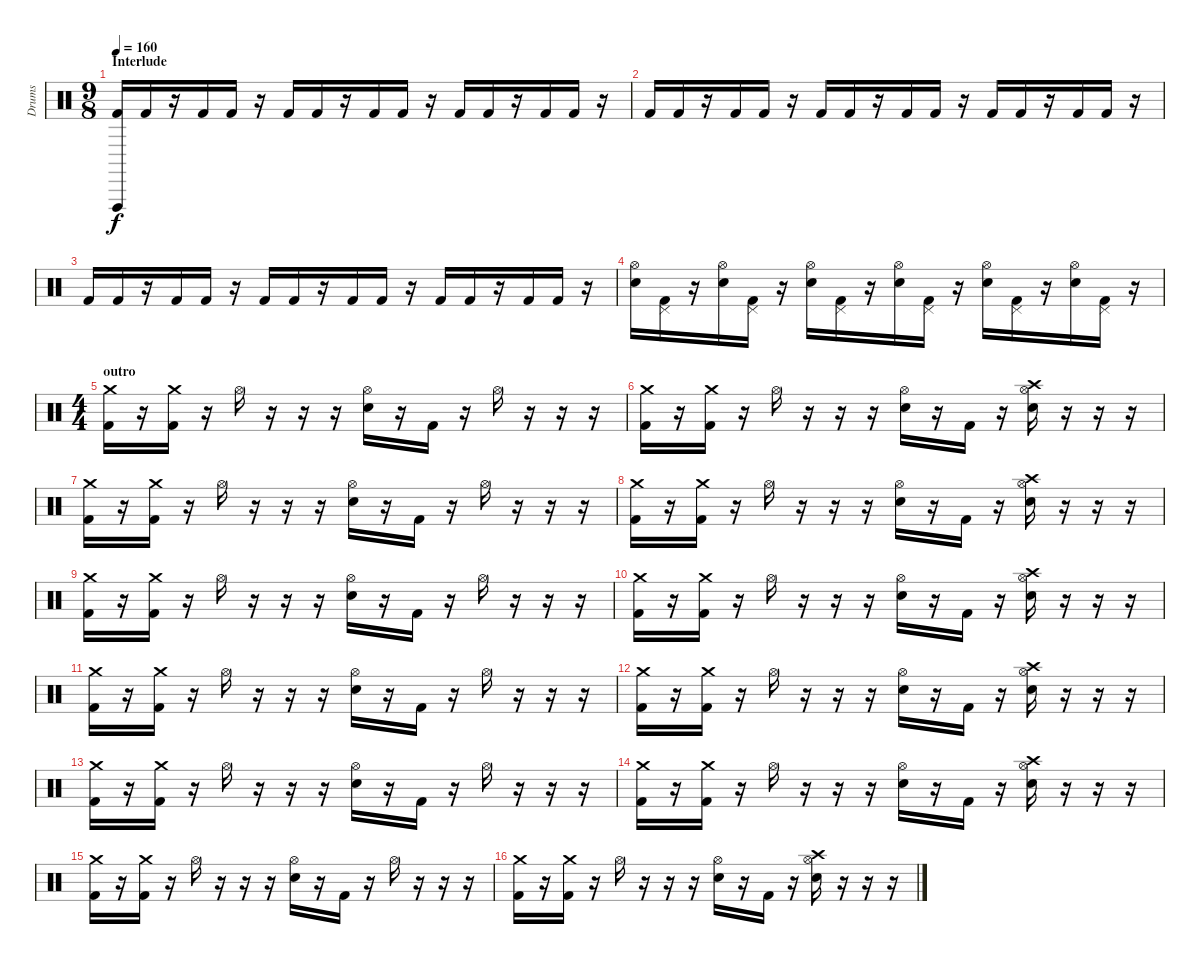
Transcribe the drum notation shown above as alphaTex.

\track ("Drums" "Drums") {instrument percussion}
\staff {score}
\articulation defaults
\ts (9 8)
\section ("" "Interlude")
\tempo 160
\clef neutral
\ks c
("Vibraslap (hit)" "Kick (hit) 2").16{dy f} "Kick (hit) 2".16 r.16 "Kick (hit) 2".16 "Kick (hit) 2".16 r.16 "Kick (hit) 2".16 "Kick (hit) 2".16 r.16 "Kick (hit) 2".16 "Kick (hit) 2".16 r.16 "Kick (hit) 2".16 "Kick (hit) 2".16 r.16 "Kick (hit) 2".16 "Kick (hit) 2".16 r.16 |
"Kick (hit) 2".16 "Kick (hit) 2".16 r.16 "Kick (hit) 2".16 "Kick (hit) 2".16 r.16 "Kick (hit) 2".16 "Kick (hit) 2".16 r.16 "Kick (hit) 2".16 "Kick (hit) 2".16 r.16 "Kick (hit) 2".16 "Kick (hit) 2".16 r.16 "Kick (hit) 2".16 "Kick (hit) 2".16 r.16 |
"Kick (hit) 2".16 "Kick (hit) 2".16 r.16 "Kick (hit) 2".16 "Kick (hit) 2".16 r.16 "Kick (hit) 2".16 "Kick (hit) 2".16 r.16 "Kick (hit) 2".16 "Kick (hit) 2".16 r.16 "Kick (hit) 2".16 "Kick (hit) 2".16 r.16 "Kick (hit) 2".16 "Kick (hit) 2".16 r.16 |
("Hi-Hat (open)" "Electric Snare (hit)").16 ("Pedal Hi-Hat (hit)" "Kick (hit) 2").16 r.16 ("Hi-Hat (open)" "Electric Snare (hit)").16 ("Pedal Hi-Hat (hit)" "Kick (hit) 2").16 r.16 ("Hi-Hat (open)" "Electric Snare (hit)").16 ("Pedal Hi-Hat (hit)" "Kick (hit) 2").16 r.16 ("Hi-Hat (open)" "Electric Snare (hit)").16 ("Pedal Hi-Hat (hit)" "Kick (hit) 2").16 r.16 ("Hi-Hat (open)" "Electric Snare (hit)").16 ("Pedal Hi-Hat (hit)" "Kick (hit) 2").16 r.16 ("Hi-Hat (open)" "Electric Snare (hit)").16 ("Pedal Hi-Hat (hit)" "Kick (hit) 2").16 r.16 |
\ts (4 4)
\section ("" "outro")
("Crash medium (hit)" "Kick (hit) 2").16 r.16 ("Crash medium (hit)" "Kick (hit) 2").16 r.16 "Hi-Hat (open)".16 r.16 r.16 r.16 ("Hi-Hat (open)" "Electric Snare (hit)").16 r.16 "Kick (hit) 2".16 r.16 "Hi-Hat (open)".16 r.16 r.16 r.16 |
("Crash medium (hit)" "Kick (hit) 2").16 r.16 ("Crash medium (hit)" "Kick (hit) 2").16 r.16 "Hi-Hat (open)".16 r.16 r.16 r.16 ("Hi-Hat (open)" "Electric Snare (hit)").16 r.16 "Kick (hit) 2".16 r.16 ("Crash high (hit)" "Hi-Hat (open)" "Electric Snare (hit)").16 r.16 r.16 r.16 |
("Crash medium (hit)" "Kick (hit) 2").16 r.16 ("Crash medium (hit)" "Kick (hit) 2").16 r.16 "Hi-Hat (open)".16 r.16 r.16 r.16 ("Hi-Hat (open)" "Electric Snare (hit)").16 r.16 "Kick (hit) 2".16 r.16 "Hi-Hat (open)".16 r.16 r.16 r.16 |
("Crash medium (hit)" "Kick (hit) 2").16 r.16 ("Crash medium (hit)" "Kick (hit) 2").16 r.16 "Hi-Hat (open)".16 r.16 r.16 r.16 ("Hi-Hat (open)" "Electric Snare (hit)").16 r.16 "Kick (hit) 2".16 r.16 ("Crash high (hit)" "Hi-Hat (open)" "Electric Snare (hit)").16 r.16 r.16 r.16 |
("Crash medium (hit)" "Kick (hit) 2").16 r.16 ("Crash medium (hit)" "Kick (hit) 2").16 r.16 "Hi-Hat (open)".16 r.16 r.16 r.16 ("Hi-Hat (open)" "Electric Snare (hit)").16 r.16 "Kick (hit) 2".16 r.16 "Hi-Hat (open)".16 r.16 r.16 r.16 |
("Crash medium (hit)" "Kick (hit) 2").16 r.16 ("Crash medium (hit)" "Kick (hit) 2").16 r.16 "Hi-Hat (open)".16 r.16 r.16 r.16 ("Hi-Hat (open)" "Electric Snare (hit)").16 r.16 "Kick (hit) 2".16 r.16 ("Crash high (hit)" "Hi-Hat (open)" "Electric Snare (hit)").16 r.16 r.16 r.16 |
("Crash medium (hit)" "Kick (hit) 2").16 r.16 ("Crash medium (hit)" "Kick (hit) 2").16 r.16 "Hi-Hat (open)".16 r.16 r.16 r.16 ("Hi-Hat (open)" "Electric Snare (hit)").16 r.16 "Kick (hit) 2".16 r.16 "Hi-Hat (open)".16 r.16 r.16 r.16 |
("Crash medium (hit)" "Kick (hit) 2").16 r.16 ("Crash medium (hit)" "Kick (hit) 2").16 r.16 "Hi-Hat (open)".16 r.16 r.16 r.16 ("Hi-Hat (open)" "Electric Snare (hit)").16 r.16 "Kick (hit) 2".16 r.16 ("Crash high (hit)" "Hi-Hat (open)" "Electric Snare (hit)").16 r.16 r.16 r.16 |
("Crash medium (hit)" "Kick (hit) 2").16 r.16 ("Crash medium (hit)" "Kick (hit) 2").16 r.16 "Hi-Hat (open)".16 r.16 r.16 r.16 ("Hi-Hat (open)" "Electric Snare (hit)").16 r.16 "Kick (hit) 2".16 r.16 "Hi-Hat (open)".16 r.16 r.16 r.16 |
("Crash medium (hit)" "Kick (hit) 2").16 r.16 ("Crash medium (hit)" "Kick (hit) 2").16 r.16 "Hi-Hat (open)".16 r.16 r.16 r.16 ("Hi-Hat (open)" "Electric Snare (hit)").16 r.16 "Kick (hit) 2".16 r.16 ("Crash high (hit)" "Hi-Hat (open)" "Electric Snare (hit)").16 r.16 r.16 r.16 |
("Crash medium (hit)" "Kick (hit) 2").16 r.16 ("Crash medium (hit)" "Kick (hit) 2").16 r.16 "Hi-Hat (open)".16 r.16 r.16 r.16 ("Hi-Hat (open)" "Electric Snare (hit)").16 r.16 "Kick (hit) 2".16 r.16 "Hi-Hat (open)".16 r.16 r.16 r.16 |
("Crash medium (hit)" "Kick (hit) 2").16 r.16 ("Crash medium (hit)" "Kick (hit) 2").16 r.16 "Hi-Hat (open)".16 r.16 r.16 r.16 ("Hi-Hat (open)" "Electric Snare (hit)").16 r.16 "Kick (hit) 2".16 r.16 ("Crash high (hit)" "Hi-Hat (open)" "Electric Snare (hit)").16 r.16 r.16 r.16
